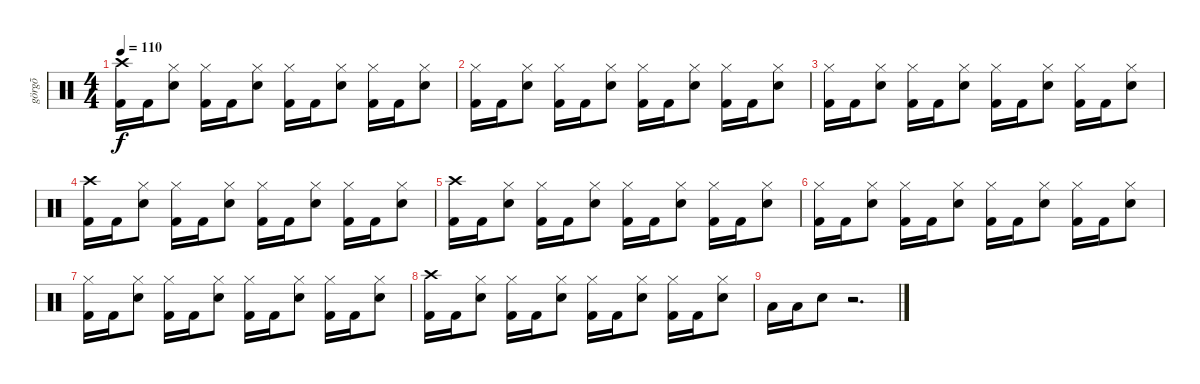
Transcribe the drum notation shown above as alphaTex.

\track ("görgõ" "görgõ") {instrument percussion}
\staff {score}
\articulation defaults
\ts (4 4)
\tempo 110
\clef neutral
\ks c
("Crash high (hit)" "Kick (hit) 2").16{dy f} "Kick (hit) 2".16 ("Hi-Hat (closed)" "Snare (hit) 2").8 ("Hi-Hat (closed)" "Kick (hit) 2").16 "Kick (hit) 2".16 ("Hi-Hat (closed)" "Snare (hit) 2").8 ("Hi-Hat (closed)" "Kick (hit) 2").16 "Kick (hit) 2".16 ("Hi-Hat (closed)" "Snare (hit) 2").8 ("Hi-Hat (closed)" "Kick (hit) 2").16 "Kick (hit) 2".16 ("Hi-Hat (closed)" "Snare (hit) 2").8 |
("Hi-Hat (closed)" "Kick (hit) 2").16 "Kick (hit) 2".16 ("Hi-Hat (closed)" "Snare (hit) 2").8 ("Hi-Hat (closed)" "Kick (hit) 2").16 "Kick (hit) 2".16 ("Hi-Hat (closed)" "Snare (hit) 2").8 ("Hi-Hat (closed)" "Kick (hit) 2").16 "Kick (hit) 2".16 ("Hi-Hat (closed)" "Snare (hit) 2").8 ("Hi-Hat (closed)" "Kick (hit) 2").16 "Kick (hit) 2".16 ("Hi-Hat (closed)" "Snare (hit) 2").8 |
("Hi-Hat (closed)" "Kick (hit) 2").16 "Kick (hit) 2".16 ("Hi-Hat (closed)" "Snare (hit) 2").8 ("Hi-Hat (closed)" "Kick (hit) 2").16 "Kick (hit) 2".16 ("Hi-Hat (closed)" "Snare (hit) 2").8 ("Hi-Hat (closed)" "Kick (hit) 2").16 "Kick (hit) 2".16 ("Hi-Hat (closed)" "Snare (hit) 2").8 ("Hi-Hat (closed)" "Kick (hit) 2").16 "Kick (hit) 2".16 ("Hi-Hat (closed)" "Snare (hit) 2").8 |
("Crash high (hit)" "Kick (hit) 2").16 "Kick (hit) 2".16 ("Hi-Hat (closed)" "Snare (hit) 2").8 ("Hi-Hat (closed)" "Kick (hit) 2").16 "Kick (hit) 2".16 ("Hi-Hat (closed)" "Snare (hit) 2").8 ("Hi-Hat (closed)" "Kick (hit) 2").16 "Kick (hit) 2".16 ("Hi-Hat (closed)" "Snare (hit) 2").8 ("Hi-Hat (closed)" "Kick (hit) 2").16 "Kick (hit) 2".16 ("Hi-Hat (closed)" "Snare (hit) 2").8 |
("Crash high (hit)" "Kick (hit) 2").16 "Kick (hit) 2".16 ("Hi-Hat (closed)" "Snare (hit) 2").8 ("Hi-Hat (closed)" "Kick (hit) 2").16 "Kick (hit) 2".16 ("Hi-Hat (closed)" "Snare (hit) 2").8 ("Hi-Hat (closed)" "Kick (hit) 2").16 "Kick (hit) 2".16 ("Hi-Hat (closed)" "Snare (hit) 2").8 ("Hi-Hat (closed)" "Kick (hit) 2").16 "Kick (hit) 2".16 ("Hi-Hat (closed)" "Snare (hit) 2").8 |
("Hi-Hat (closed)" "Kick (hit) 2").16 "Kick (hit) 2".16 ("Hi-Hat (closed)" "Snare (hit) 2").8 ("Hi-Hat (closed)" "Kick (hit) 2").16 "Kick (hit) 2".16 ("Hi-Hat (closed)" "Snare (hit) 2").8 ("Hi-Hat (closed)" "Kick (hit) 2").16 "Kick (hit) 2".16 ("Hi-Hat (closed)" "Snare (hit) 2").8 ("Hi-Hat (closed)" "Kick (hit) 2").16 "Kick (hit) 2".16 ("Hi-Hat (closed)" "Snare (hit) 2").8 |
("Hi-Hat (closed)" "Kick (hit) 2").16 "Kick (hit) 2".16 ("Hi-Hat (closed)" "Snare (hit) 2").8 ("Hi-Hat (closed)" "Kick (hit) 2").16 "Kick (hit) 2".16 ("Hi-Hat (closed)" "Snare (hit) 2").8 ("Hi-Hat (closed)" "Kick (hit) 2").16 "Kick (hit) 2".16 ("Hi-Hat (closed)" "Snare (hit) 2").8 ("Hi-Hat (closed)" "Kick (hit) 2").16 "Kick (hit) 2".16 ("Hi-Hat (closed)" "Snare (hit) 2").8 |
("Crash high (hit)" "Kick (hit) 2").16 "Kick (hit) 2".16 ("Hi-Hat (closed)" "Snare (hit) 2").8 ("Hi-Hat (closed)" "Kick (hit) 2").16 "Kick (hit) 2".16 ("Hi-Hat (closed)" "Snare (hit) 2").8 ("Hi-Hat (closed)" "Kick (hit) 2").16 "Kick (hit) 2".16 ("Hi-Hat (closed)" "Snare (hit) 2").8 ("Hi-Hat (closed)" "Kick (hit) 2").16 "Kick (hit) 2".16 ("Hi-Hat (closed)" "Snare (hit) 2").8 |
"Low Floor Tom (hit)".16 "Low Floor Tom (hit)".16 "Snare (hit) 2".8 r.2{d}
